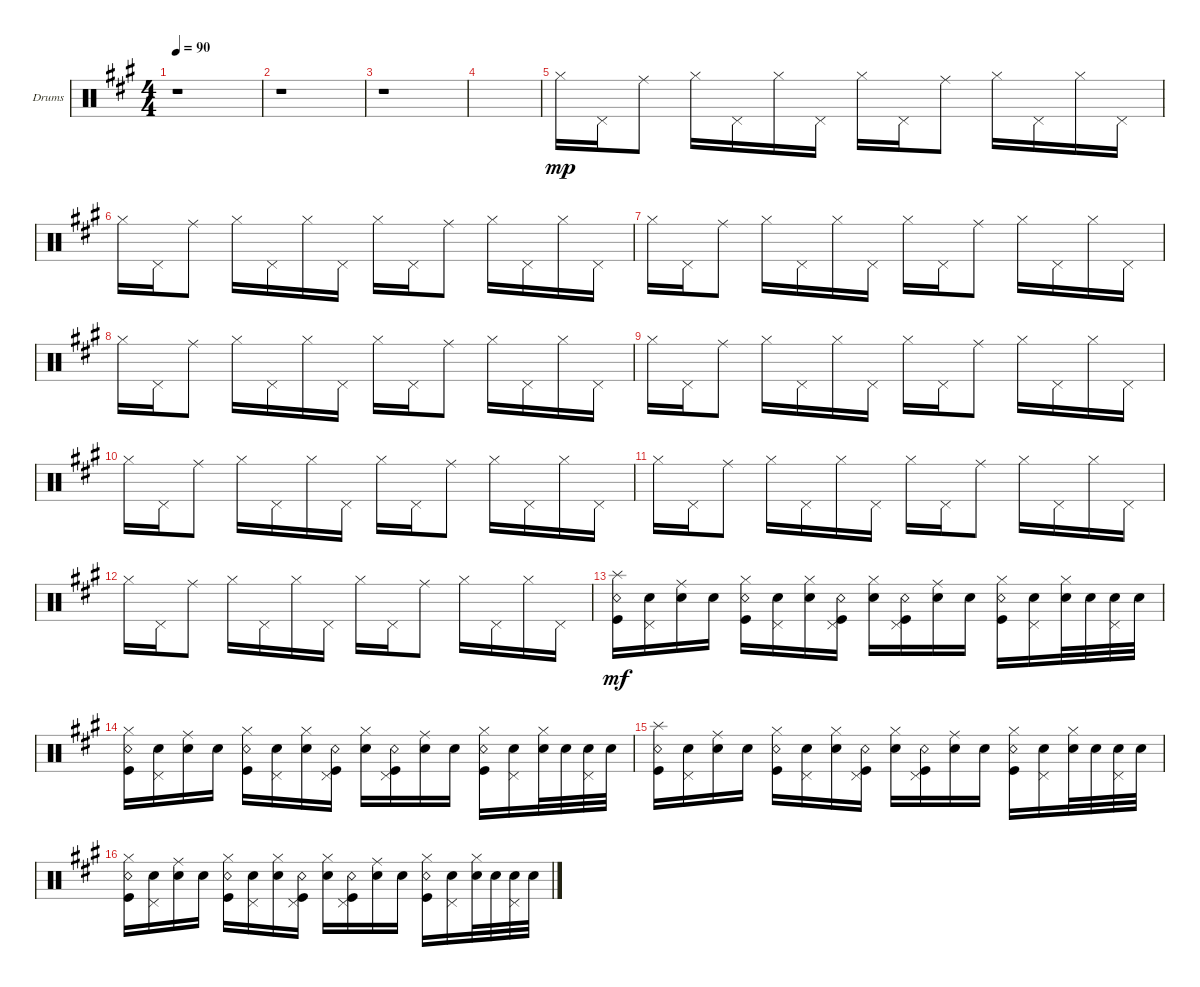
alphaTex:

\bracketExtendMode groupsimilarinstruments
\firstSystemTrackNameOrientation horizontal
\otherSystemsTrackNameOrientation horizontal
\track ("Drumkit" "Drums") {instrument percussion}
\staff {score}
\articulation defaults
\ts (4 4)
\tempo 90
\clef neutral
\ks f#minor
r.1{dy mp} |
r.1 |
r.1 |
|
"Hi-Hat (closed)".16 "Pedal Hi-Hat (hit)".16 "Ride (middle)".8 "Hi-Hat (closed)".16 "Pedal Hi-Hat (hit)".16 "Hi-Hat (closed)".16 "Pedal Hi-Hat (hit)".16 "Hi-Hat (closed)".16 "Pedal Hi-Hat (hit)".16 "Ride (middle)".8 "Hi-Hat (closed)".16 "Pedal Hi-Hat (hit)".16 "Hi-Hat (closed)".16 "Pedal Hi-Hat (hit)".16 |
"Hi-Hat (closed)".16 "Pedal Hi-Hat (hit)".16 "Ride (middle)".8 "Hi-Hat (closed)".16 "Pedal Hi-Hat (hit)".16 "Hi-Hat (closed)".16 "Pedal Hi-Hat (hit)".16 "Hi-Hat (closed)".16 "Pedal Hi-Hat (hit)".16 "Ride (middle)".8 "Hi-Hat (closed)".16 "Pedal Hi-Hat (hit)".16 "Hi-Hat (closed)".16 "Pedal Hi-Hat (hit)".16 |
"Hi-Hat (closed)".16 "Pedal Hi-Hat (hit)".16 "Ride (middle)".8 "Hi-Hat (closed)".16 "Pedal Hi-Hat (hit)".16 "Hi-Hat (closed)".16 "Pedal Hi-Hat (hit)".16 "Hi-Hat (closed)".16 "Pedal Hi-Hat (hit)".16 "Ride (middle)".8 "Hi-Hat (closed)".16 "Pedal Hi-Hat (hit)".16 "Hi-Hat (closed)".16 "Pedal Hi-Hat (hit)".16 |
"Hi-Hat (closed)".16 "Pedal Hi-Hat (hit)".16 "Ride (middle)".8 "Hi-Hat (closed)".16 "Pedal Hi-Hat (hit)".16 "Hi-Hat (closed)".16 "Pedal Hi-Hat (hit)".16 "Hi-Hat (closed)".16 "Pedal Hi-Hat (hit)".16 "Ride (middle)".8 "Hi-Hat (closed)".16 "Pedal Hi-Hat (hit)".16 "Hi-Hat (closed)".16 "Pedal Hi-Hat (hit)".16 |
"Hi-Hat (closed)".16 "Pedal Hi-Hat (hit)".16 "Ride (middle)".8 "Hi-Hat (closed)".16 "Pedal Hi-Hat (hit)".16 "Hi-Hat (closed)".16 "Pedal Hi-Hat (hit)".16 "Hi-Hat (closed)".16 "Pedal Hi-Hat (hit)".16 "Ride (middle)".8 "Hi-Hat (closed)".16 "Pedal Hi-Hat (hit)".16 "Hi-Hat (closed)".16 "Pedal Hi-Hat (hit)".16 |
"Hi-Hat (closed)".16 "Pedal Hi-Hat (hit)".16 "Ride (middle)".8 "Hi-Hat (closed)".16 "Pedal Hi-Hat (hit)".16 "Hi-Hat (closed)".16 "Pedal Hi-Hat (hit)".16 "Hi-Hat (closed)".16 "Pedal Hi-Hat (hit)".16 "Ride (middle)".8 "Hi-Hat (closed)".16 "Pedal Hi-Hat (hit)".16 "Hi-Hat (closed)".16 "Pedal Hi-Hat (hit)".16 |
"Hi-Hat (closed)".16 "Pedal Hi-Hat (hit)".16 "Ride (middle)".8 "Hi-Hat (closed)".16 "Pedal Hi-Hat (hit)".16 "Hi-Hat (closed)".16 "Pedal Hi-Hat (hit)".16 "Hi-Hat (closed)".16 "Pedal Hi-Hat (hit)".16 "Ride (middle)".8 "Hi-Hat (closed)".16 "Pedal Hi-Hat (hit)".16 "Hi-Hat (closed)".16 "Pedal Hi-Hat (hit)".16 |
"Hi-Hat (closed)".16 "Pedal Hi-Hat (hit)".16 "Ride (middle)".8 "Hi-Hat (closed)".16 "Pedal Hi-Hat (hit)".16 "Hi-Hat (closed)".16 "Pedal Hi-Hat (hit)".16 "Hi-Hat (closed)".16 "Pedal Hi-Hat (hit)".16 "Ride (middle)".8 "Hi-Hat (closed)".16 "Pedal Hi-Hat (hit)".16 "Hi-Hat (closed)".16 "Pedal Hi-Hat (hit)".16 |
("Kick (hit)" "Snare (rim shot)" "Splash (hit)").16{dy mf} ("Snare (hit) 2" "Pedal Hi-Hat (hit)").16 ("Snare (hit) 2" "Ride (middle)").16 "Snare (hit) 2".16 ("Snare (rim shot)" "Kick (hit)" "Hi-Hat (closed)").16 ("Snare (hit) 2" "Pedal Hi-Hat (hit)").16 ("Snare (hit) 2" "Hi-Hat (closed)").16 ("Kick (hit)" "Snare (rim shot)" "Pedal Hi-Hat (hit)").16 ("Snare (hit) 2" "Hi-Hat (closed)").16 ("Kick (hit)" "Snare (rim shot)" "Pedal Hi-Hat (hit)").16 ("Snare (hit) 2" "Ride (middle)").16 "Snare (hit) 2".16 ("Snare (rim shot)" "Kick (hit)" "Hi-Hat (closed)").16 ("Snare (hit) 2" "Pedal Hi-Hat (hit)").16 ("Snare (hit) 2" "Hi-Hat (closed)").32 "Snare (hit) 2".32 ("Snare (hit) 2" "Pedal Hi-Hat (hit)").32 "Snare (hit) 2".32 |
("Kick (hit)" "Snare (rim shot)" "Hi-Hat (closed)").16 ("Snare (hit) 2" "Pedal Hi-Hat (hit)").16 ("Snare (hit) 2" "Ride (middle)").16 "Snare (hit) 2".16 ("Snare (rim shot)" "Kick (hit)" "Hi-Hat (closed)").16 ("Snare (hit) 2" "Pedal Hi-Hat (hit)").16 ("Snare (hit) 2" "Hi-Hat (closed)").16 ("Kick (hit)" "Snare (rim shot)" "Pedal Hi-Hat (hit)").16 ("Snare (hit) 2" "Hi-Hat (closed)").16 ("Kick (hit)" "Snare (rim shot)" "Pedal Hi-Hat (hit)").16 ("Snare (hit) 2" "Ride (middle)").16 "Snare (hit) 2".16 ("Snare (rim shot)" "Kick (hit)" "Hi-Hat (closed)").16 ("Snare (hit) 2" "Pedal Hi-Hat (hit)").16 ("Snare (hit) 2" "Hi-Hat (closed)").32 "Snare (hit) 2".32 ("Snare (hit) 2" "Pedal Hi-Hat (hit)").32 "Snare (hit) 2".32 |
("Kick (hit)" "Snare (rim shot)" "Splash (hit)").16 ("Snare (hit) 2" "Pedal Hi-Hat (hit)").16 ("Snare (hit) 2" "Ride (middle)").16 "Snare (hit) 2".16 ("Snare (rim shot)" "Kick (hit)" "Hi-Hat (closed)").16 ("Snare (hit) 2" "Pedal Hi-Hat (hit)").16 ("Snare (hit) 2" "Hi-Hat (closed)").16 ("Kick (hit)" "Snare (rim shot)" "Pedal Hi-Hat (hit)").16 ("Snare (hit) 2" "Hi-Hat (closed)").16 ("Kick (hit)" "Snare (rim shot)" "Pedal Hi-Hat (hit)").16 ("Snare (hit) 2" "Ride (middle)").16 "Snare (hit) 2".16 ("Snare (rim shot)" "Kick (hit)" "Hi-Hat (closed)").16 ("Snare (hit) 2" "Pedal Hi-Hat (hit)").16 ("Snare (hit) 2" "Hi-Hat (closed)").32 "Snare (hit) 2".32 ("Snare (hit) 2" "Pedal Hi-Hat (hit)").32 "Snare (hit) 2".32 |
("Kick (hit)" "Snare (rim shot)" "Hi-Hat (closed)").16 ("Snare (hit) 2" "Pedal Hi-Hat (hit)").16 ("Snare (hit) 2" "Ride (middle)").16 "Snare (hit) 2".16 ("Snare (rim shot)" "Kick (hit)" "Hi-Hat (closed)").16 ("Snare (hit) 2" "Pedal Hi-Hat (hit)").16 ("Snare (hit) 2" "Hi-Hat (closed)").16 ("Kick (hit)" "Snare (rim shot)" "Pedal Hi-Hat (hit)").16 ("Snare (hit) 2" "Hi-Hat (closed)").16 ("Kick (hit)" "Snare (rim shot)" "Pedal Hi-Hat (hit)").16 ("Snare (hit) 2" "Ride (middle)").16 "Snare (hit) 2".16 ("Snare (rim shot)" "Kick (hit)" "Hi-Hat (closed)").16 ("Snare (hit) 2" "Pedal Hi-Hat (hit)").16 ("Snare (hit) 2" "Hi-Hat (closed)").32 "Snare (hit) 2".32 ("Snare (hit) 2" "Pedal Hi-Hat (hit)").32 "Snare (hit) 2".32
